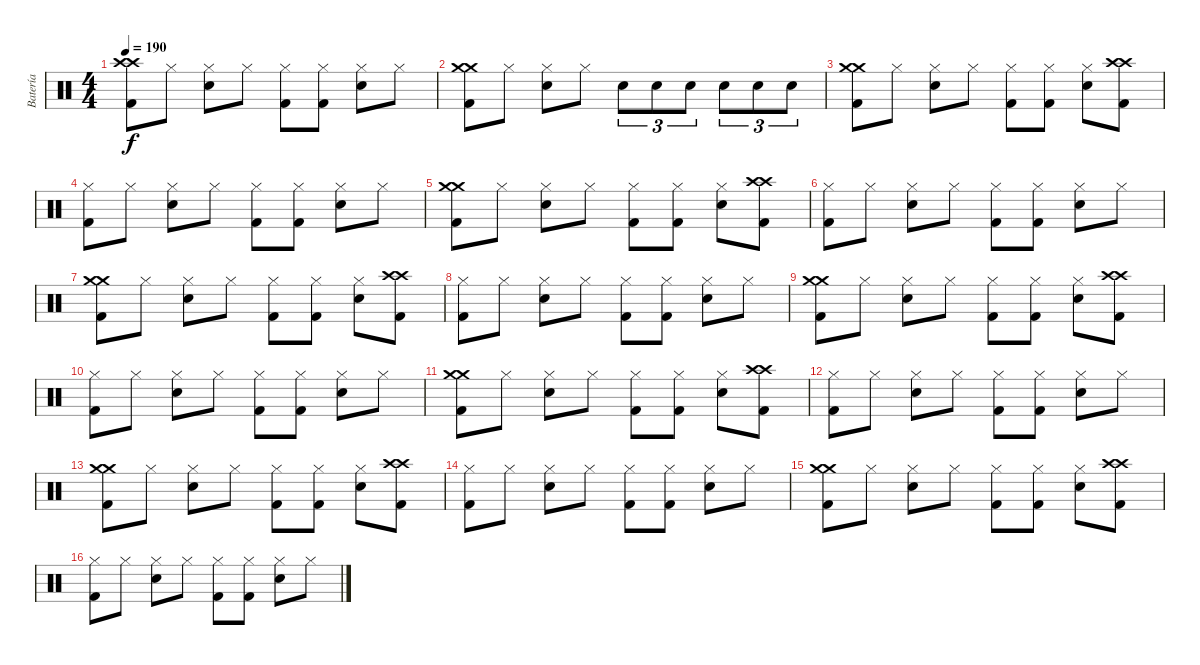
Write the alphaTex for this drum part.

\track ("Batería" "Batería") {instrument percussion}
\staff {score}
\articulation defaults
\ts (4 4)
\tempo 190
\clef neutral
\ks c
("Crash high (hit)" "Crash high (hit)" "Kick (hit) 2").8{dy f} "Hi-Hat (closed)".8 ("Hi-Hat (closed)" "Snare (hit) 2").8 "Hi-Hat (closed)".8 ("Hi-Hat (closed)" "Kick (hit) 2").8 ("Hi-Hat (closed)" "Kick (hit) 2").8 ("Hi-Hat (closed)" "Snare (hit) 2").8 "Hi-Hat (closed)".8 |
("Crash medium (hit)" "Crash medium (hit)" "Kick (hit) 2").8 "Hi-Hat (closed)".8 ("Hi-Hat (closed)" "Snare (hit) 2").8 "Hi-Hat (closed)".8 "Snare (hit) 2".8{tu (3 2)} "Snare (hit) 2".8{tu (3 2)} "Snare (hit) 2".8{tu (3 2)} "Snare (hit) 2".8{tu (3 2)} "Snare (hit) 2".8{tu (3 2)} "Snare (hit) 2".8{tu (3 2)} |
("Crash medium (hit)" "Crash medium (hit)" "Kick (hit) 2").8 "Hi-Hat (closed)".8 ("Hi-Hat (closed)" "Snare (hit) 2").8 "Hi-Hat (closed)".8 ("Hi-Hat (closed)" "Kick (hit) 2").8 ("Hi-Hat (closed)" "Kick (hit) 2").8 ("Hi-Hat (closed)" "Snare (hit) 2").8 ("Crash high (hit)" "Crash high (hit)" "Kick (hit) 2").8 |
("Hi-Hat (closed)" "Kick (hit) 2").8 "Hi-Hat (closed)".8 ("Hi-Hat (closed)" "Snare (hit) 2").8 "Hi-Hat (closed)".8 ("Hi-Hat (closed)" "Kick (hit) 2").8 ("Hi-Hat (closed)" "Kick (hit) 2").8 ("Hi-Hat (closed)" "Snare (hit) 2").8 "Hi-Hat (closed)".8 |
("Crash medium (hit)" "Crash medium (hit)" "Kick (hit) 2").8 "Hi-Hat (closed)".8 ("Hi-Hat (closed)" "Snare (hit) 2").8 "Hi-Hat (closed)".8 ("Hi-Hat (closed)" "Kick (hit) 2").8 ("Hi-Hat (closed)" "Kick (hit) 2").8 ("Hi-Hat (closed)" "Snare (hit) 2").8 ("Crash high (hit)" "Crash high (hit)" "Kick (hit) 2").8 |
("Hi-Hat (closed)" "Kick (hit) 2").8 "Hi-Hat (closed)".8 ("Hi-Hat (closed)" "Snare (hit) 2").8 "Hi-Hat (closed)".8 ("Hi-Hat (closed)" "Kick (hit) 2").8 ("Hi-Hat (closed)" "Kick (hit) 2").8 ("Hi-Hat (closed)" "Snare (hit) 2").8 "Hi-Hat (closed)".8 |
("Crash medium (hit)" "Crash medium (hit)" "Kick (hit) 2").8 "Hi-Hat (closed)".8 ("Hi-Hat (closed)" "Snare (hit) 2").8 "Hi-Hat (closed)".8 ("Hi-Hat (closed)" "Kick (hit) 2").8 ("Hi-Hat (closed)" "Kick (hit) 2").8 ("Hi-Hat (closed)" "Snare (hit) 2").8 ("Crash high (hit)" "Crash high (hit)" "Kick (hit) 2").8 |
("Hi-Hat (closed)" "Kick (hit) 2").8 "Hi-Hat (closed)".8 ("Hi-Hat (closed)" "Snare (hit) 2").8 "Hi-Hat (closed)".8 ("Hi-Hat (closed)" "Kick (hit) 2").8 ("Hi-Hat (closed)" "Kick (hit) 2").8 ("Hi-Hat (closed)" "Snare (hit) 2").8 "Hi-Hat (closed)".8 |
("Crash medium (hit)" "Crash medium (hit)" "Kick (hit) 2").8 "Hi-Hat (closed)".8 ("Hi-Hat (closed)" "Snare (hit) 2").8 "Hi-Hat (closed)".8 ("Hi-Hat (closed)" "Kick (hit) 2").8 ("Hi-Hat (closed)" "Kick (hit) 2").8 ("Hi-Hat (closed)" "Snare (hit) 2").8 ("Crash high (hit)" "Crash high (hit)" "Kick (hit) 2").8 |
("Hi-Hat (closed)" "Kick (hit) 2").8 "Hi-Hat (closed)".8 ("Hi-Hat (closed)" "Snare (hit) 2").8 "Hi-Hat (closed)".8 ("Hi-Hat (closed)" "Kick (hit) 2").8 ("Hi-Hat (closed)" "Kick (hit) 2").8 ("Hi-Hat (closed)" "Snare (hit) 2").8 "Hi-Hat (closed)".8 |
("Crash medium (hit)" "Crash medium (hit)" "Kick (hit) 2").8 "Hi-Hat (closed)".8 ("Hi-Hat (closed)" "Snare (hit) 2").8 "Hi-Hat (closed)".8 ("Hi-Hat (closed)" "Kick (hit) 2").8 ("Hi-Hat (closed)" "Kick (hit) 2").8 ("Hi-Hat (closed)" "Snare (hit) 2").8 ("Crash high (hit)" "Crash high (hit)" "Kick (hit) 2").8 |
("Hi-Hat (closed)" "Kick (hit) 2").8 "Hi-Hat (closed)".8 ("Hi-Hat (closed)" "Snare (hit) 2").8 "Hi-Hat (closed)".8 ("Hi-Hat (closed)" "Kick (hit) 2").8 ("Hi-Hat (closed)" "Kick (hit) 2").8 ("Hi-Hat (closed)" "Snare (hit) 2").8 "Hi-Hat (closed)".8 |
("Crash medium (hit)" "Crash medium (hit)" "Kick (hit) 2").8 "Hi-Hat (closed)".8 ("Hi-Hat (closed)" "Snare (hit) 2").8 "Hi-Hat (closed)".8 ("Hi-Hat (closed)" "Kick (hit) 2").8 ("Hi-Hat (closed)" "Kick (hit) 2").8 ("Hi-Hat (closed)" "Snare (hit) 2").8 ("Crash high (hit)" "Crash high (hit)" "Kick (hit) 2").8 |
("Hi-Hat (closed)" "Kick (hit) 2").8 "Hi-Hat (closed)".8 ("Hi-Hat (closed)" "Snare (hit) 2").8 "Hi-Hat (closed)".8 ("Hi-Hat (closed)" "Kick (hit) 2").8 ("Hi-Hat (closed)" "Kick (hit) 2").8 ("Hi-Hat (closed)" "Snare (hit) 2").8 "Hi-Hat (closed)".8 |
("Crash medium (hit)" "Crash medium (hit)" "Kick (hit) 2").8 "Hi-Hat (closed)".8 ("Hi-Hat (closed)" "Snare (hit) 2").8 "Hi-Hat (closed)".8 ("Hi-Hat (closed)" "Kick (hit) 2").8 ("Hi-Hat (closed)" "Kick (hit) 2").8 ("Hi-Hat (closed)" "Snare (hit) 2").8 ("Crash high (hit)" "Crash high (hit)" "Kick (hit) 2").8 |
("Hi-Hat (closed)" "Kick (hit) 2").8 "Hi-Hat (closed)".8 ("Hi-Hat (closed)" "Snare (hit) 2").8 "Hi-Hat (closed)".8 ("Hi-Hat (closed)" "Kick (hit) 2").8 ("Hi-Hat (closed)" "Kick (hit) 2").8 ("Hi-Hat (closed)" "Snare (hit) 2").8 "Hi-Hat (closed)".8
